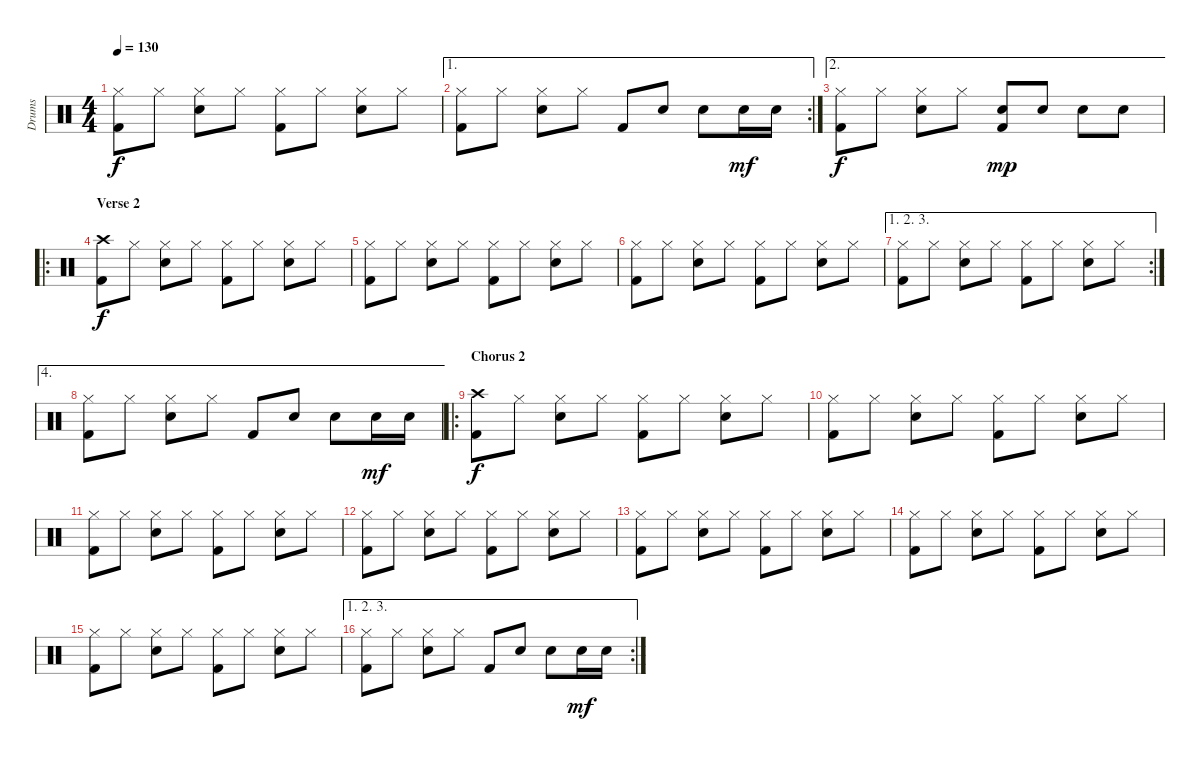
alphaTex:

\track ("Drums" "Drums") {instrument percussion}
\staff {score}
\articulation defaults
\ts (4 4)
\tempo 130
\clef neutral
\ks c
("Hi-Hat (closed)" "Kick (hit) 2").8{dy f} "Hi-Hat (closed)".8 ("Hi-Hat (closed)" "Snare (hit) 2").8 "Hi-Hat (closed)".8 ("Hi-Hat (closed)" "Kick (hit) 2").8 "Hi-Hat (closed)".8 ("Hi-Hat (closed)" "Snare (hit) 2").8 "Hi-Hat (closed)".8 |
\ae 1
\rc 2
("Hi-Hat (closed)" "Kick (hit) 2").8 "Hi-Hat (closed)".8 ("Hi-Hat (closed)" "Snare (hit) 2").8 "Hi-Hat (closed)".8 "Kick (hit) 2".8 "Snare (hit) 2".8 "Snare (hit) 2".8 "Snare (hit) 2".16{dy mf} "Snare (hit) 2".16 |
\ae 2
("Hi-Hat (closed)" "Kick (hit) 2").8{dy f} "Hi-Hat (closed)".8 ("Hi-Hat (closed)" "Snare (hit) 2").8 "Hi-Hat (closed)".8 ("Snare (hit) 2" "Kick (hit) 2").8{dy mp} "Snare (hit) 2".8 "Snare (hit) 2".8 "Snare (hit) 2".8 |
\ro
\section ("" "Verse 2")
("Crash high (hit)" "Kick (hit) 2").8{dy f} "Hi-Hat (closed)".8 ("Hi-Hat (closed)" "Snare (hit) 2").8 "Hi-Hat (closed)".8 ("Hi-Hat (closed)" "Kick (hit) 2").8 "Hi-Hat (closed)".8 ("Hi-Hat (closed)" "Snare (hit) 2").8 "Hi-Hat (closed)".8 |
("Hi-Hat (closed)" "Kick (hit) 2").8 "Hi-Hat (closed)".8 ("Hi-Hat (closed)" "Snare (hit) 2").8 "Hi-Hat (closed)".8 ("Hi-Hat (closed)" "Kick (hit) 2").8 "Hi-Hat (closed)".8 ("Hi-Hat (closed)" "Snare (hit) 2").8 "Hi-Hat (closed)".8 |
("Hi-Hat (closed)" "Kick (hit) 2").8 "Hi-Hat (closed)".8 ("Hi-Hat (closed)" "Snare (hit) 2").8 "Hi-Hat (closed)".8 ("Hi-Hat (closed)" "Kick (hit) 2").8 "Hi-Hat (closed)".8 ("Hi-Hat (closed)" "Snare (hit) 2").8 "Hi-Hat (closed)".8 |
\ae (1 2 3)
\rc 2
("Hi-Hat (closed)" "Kick (hit) 2").8 "Hi-Hat (closed)".8 ("Hi-Hat (closed)" "Snare (hit) 2").8 "Hi-Hat (closed)".8 ("Hi-Hat (closed)" "Kick (hit) 2").8 "Hi-Hat (closed)".8 ("Hi-Hat (closed)" "Snare (hit) 2").8 "Hi-Hat (closed)".8 |
\ae 4
("Hi-Hat (closed)" "Kick (hit) 2").8 "Hi-Hat (closed)".8 ("Hi-Hat (closed)" "Snare (hit) 2").8 "Hi-Hat (closed)".8 "Kick (hit) 2".8 "Snare (hit) 2".8 "Snare (hit) 2".8 "Snare (hit) 2".16{dy mf} "Snare (hit) 2".16 |
\ro
\section ("" "Chorus 2")
("Crash high (hit)" "Kick (hit) 2").8{dy f} "Hi-Hat (closed)".8 ("Hi-Hat (closed)" "Snare (hit) 2").8 "Hi-Hat (closed)".8 ("Hi-Hat (closed)" "Kick (hit) 2").8 "Hi-Hat (closed)".8 ("Hi-Hat (closed)" "Snare (hit) 2").8 "Hi-Hat (closed)".8 |
("Hi-Hat (closed)" "Kick (hit) 2").8 "Hi-Hat (closed)".8 ("Hi-Hat (closed)" "Snare (hit) 2").8 "Hi-Hat (closed)".8 ("Hi-Hat (closed)" "Kick (hit) 2").8 "Hi-Hat (closed)".8 ("Hi-Hat (closed)" "Snare (hit) 2").8 "Hi-Hat (closed)".8 |
("Hi-Hat (closed)" "Kick (hit) 2").8 "Hi-Hat (closed)".8 ("Hi-Hat (closed)" "Snare (hit) 2").8 "Hi-Hat (closed)".8 ("Hi-Hat (closed)" "Kick (hit) 2").8 "Hi-Hat (closed)".8 ("Hi-Hat (closed)" "Snare (hit) 2").8 "Hi-Hat (closed)".8 |
("Hi-Hat (closed)" "Kick (hit) 2").8 "Hi-Hat (closed)".8 ("Hi-Hat (closed)" "Snare (hit) 2").8 "Hi-Hat (closed)".8 ("Hi-Hat (closed)" "Kick (hit) 2").8 "Hi-Hat (closed)".8 ("Hi-Hat (closed)" "Snare (hit) 2").8 "Hi-Hat (closed)".8 |
("Hi-Hat (closed)" "Kick (hit) 2").8 "Hi-Hat (closed)".8 ("Hi-Hat (closed)" "Snare (hit) 2").8 "Hi-Hat (closed)".8 ("Hi-Hat (closed)" "Kick (hit) 2").8 "Hi-Hat (closed)".8 ("Hi-Hat (closed)" "Snare (hit) 2").8 "Hi-Hat (closed)".8 |
("Hi-Hat (closed)" "Kick (hit) 2").8 "Hi-Hat (closed)".8 ("Hi-Hat (closed)" "Snare (hit) 2").8 "Hi-Hat (closed)".8 ("Hi-Hat (closed)" "Kick (hit) 2").8 "Hi-Hat (closed)".8 ("Hi-Hat (closed)" "Snare (hit) 2").8 "Hi-Hat (closed)".8 |
("Hi-Hat (closed)" "Kick (hit) 2").8 "Hi-Hat (closed)".8 ("Hi-Hat (closed)" "Snare (hit) 2").8 "Hi-Hat (closed)".8 ("Hi-Hat (closed)" "Kick (hit) 2").8 "Hi-Hat (closed)".8 ("Hi-Hat (closed)" "Snare (hit) 2").8 "Hi-Hat (closed)".8 |
\ae (1 2 3)
\rc 2
("Hi-Hat (closed)" "Kick (hit) 2").8 "Hi-Hat (closed)".8 ("Hi-Hat (closed)" "Snare (hit) 2").8 "Hi-Hat (closed)".8 "Kick (hit) 2".8 "Snare (hit) 2".8 "Snare (hit) 2".8 "Snare (hit) 2".16{dy mf} "Snare (hit) 2".16
